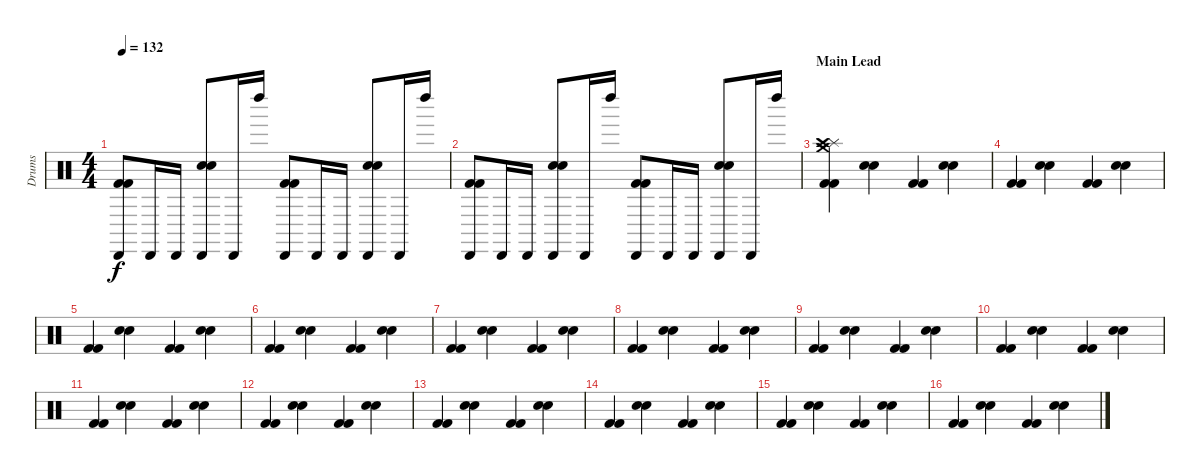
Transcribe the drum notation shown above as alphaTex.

\track ("Drums" "Drums") {instrument percussion}
\staff {score}
\articulation defaults
\ts (4 4)
\tempo 132
\clef neutral
\ks c
("Kick (hit) 2" "Kick (hit) 2" "Cabasa (hit)").8{dy f} "Cabasa (hit)".16 "Cabasa (hit)".16 ("Electric Snare (hit)" "Electric Snare (hit)" "Cabasa (hit)").8 "Cabasa (hit)".16 "Left Maraca (hit)".16 ("Kick (hit) 2" "Kick (hit) 2" "Cabasa (hit)").8 "Cabasa (hit)".16 "Cabasa (hit)".16 ("Electric Snare (hit)" "Electric Snare (hit)" "Cabasa (hit)").8 "Cabasa (hit)".16 "Left Maraca (hit)".16 |
("Kick (hit) 2" "Kick (hit) 2" "Cabasa (hit)").8 "Cabasa (hit)".16 "Cabasa (hit)".16 ("Electric Snare (hit)" "Electric Snare (hit)" "Cabasa (hit)").8 "Cabasa (hit)".16 "Left Maraca (hit)".16 ("Kick (hit) 2" "Kick (hit) 2" "Cabasa (hit)").8 "Cabasa (hit)".16 "Cabasa (hit)".16 ("Electric Snare (hit)" "Electric Snare (hit)" "Cabasa (hit)").8 "Cabasa (hit)".16 "Left Maraca (hit)".16 |
\section ("" "Main Lead")
("Kick (hit) 2" "Kick (hit) 2" "Splash (hit)" "Crash medium (hit)" "Crash high (hit)").4 ("Snare (hit) 2" "Snare (hit) 2").4 ("Kick (hit) 2" "Kick (hit) 2").4 ("Snare (hit) 2" "Snare (hit) 2").4 |
("Kick (hit) 2" "Kick (hit) 2").4 ("Snare (hit) 2" "Snare (hit) 2").4 ("Kick (hit) 2" "Kick (hit) 2").4 ("Snare (hit) 2" "Snare (hit) 2").4 |
("Kick (hit) 2" "Kick (hit) 2").4 ("Snare (hit) 2" "Snare (hit) 2").4 ("Kick (hit) 2" "Kick (hit) 2").4 ("Snare (hit) 2" "Snare (hit) 2").4 |
("Kick (hit) 2" "Kick (hit) 2").4 ("Snare (hit) 2" "Snare (hit) 2").4 ("Kick (hit) 2" "Kick (hit) 2").4 ("Snare (hit) 2" "Snare (hit) 2").4 |
("Kick (hit) 2" "Kick (hit) 2").4 ("Snare (hit) 2" "Snare (hit) 2").4 ("Kick (hit) 2" "Kick (hit) 2").4 ("Snare (hit) 2" "Snare (hit) 2").4 |
("Kick (hit) 2" "Kick (hit) 2").4 ("Snare (hit) 2" "Snare (hit) 2").4 ("Kick (hit) 2" "Kick (hit) 2").4 ("Snare (hit) 2" "Snare (hit) 2").4 |
("Kick (hit) 2" "Kick (hit) 2").4 ("Snare (hit) 2" "Snare (hit) 2").4 ("Kick (hit) 2" "Kick (hit) 2").4 ("Snare (hit) 2" "Snare (hit) 2").4 |
("Kick (hit) 2" "Kick (hit) 2").4 ("Snare (hit) 2" "Snare (hit) 2").4 ("Kick (hit) 2" "Kick (hit) 2").4 ("Snare (hit) 2" "Snare (hit) 2").4 |
("Kick (hit) 2" "Kick (hit) 2").4 ("Snare (hit) 2" "Snare (hit) 2").4 ("Kick (hit) 2" "Kick (hit) 2").4 ("Snare (hit) 2" "Snare (hit) 2").4 |
("Kick (hit) 2" "Kick (hit) 2").4 ("Snare (hit) 2" "Snare (hit) 2").4 ("Kick (hit) 2" "Kick (hit) 2").4 ("Snare (hit) 2" "Snare (hit) 2").4 |
("Kick (hit) 2" "Kick (hit) 2").4 ("Snare (hit) 2" "Snare (hit) 2").4 ("Kick (hit) 2" "Kick (hit) 2").4 ("Snare (hit) 2" "Snare (hit) 2").4 |
("Kick (hit) 2" "Kick (hit) 2").4 ("Snare (hit) 2" "Snare (hit) 2").4 ("Kick (hit) 2" "Kick (hit) 2").4 ("Snare (hit) 2" "Snare (hit) 2").4 |
("Kick (hit) 2" "Kick (hit) 2").4 ("Snare (hit) 2" "Snare (hit) 2").4 ("Kick (hit) 2" "Kick (hit) 2").4 ("Snare (hit) 2" "Snare (hit) 2").4 |
("Kick (hit) 2" "Kick (hit) 2").4 ("Snare (hit) 2" "Snare (hit) 2").4 ("Kick (hit) 2" "Kick (hit) 2").4 ("Snare (hit) 2" "Snare (hit) 2").4
